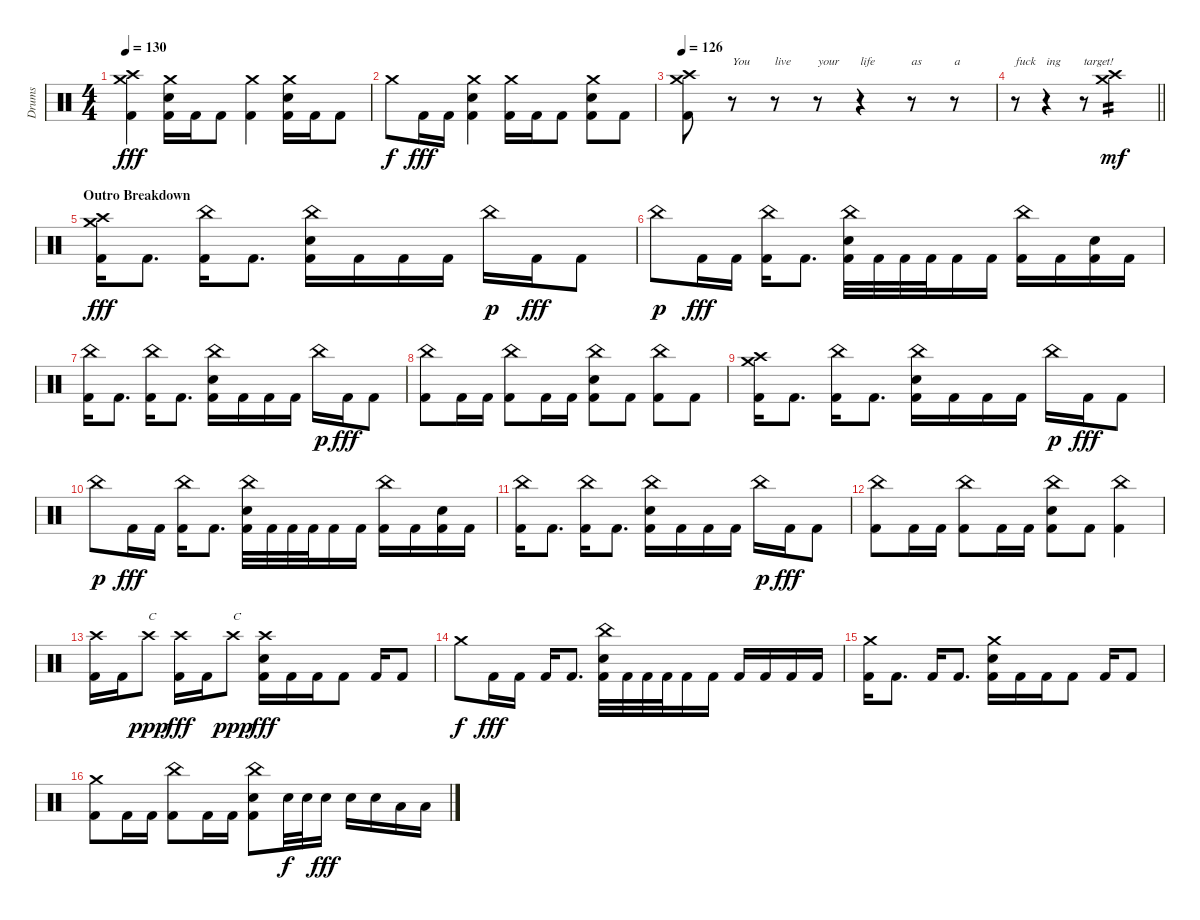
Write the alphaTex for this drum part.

\track ("Drums" "Drums") {instrument percussion}
\staff {score}
\articulation defaults
\ts (4 4)
\tempo 130
\clef neutral
\ks c
("Crash high (hit)" "Crash medium (hit)" "Kick (hit) 2").4{dy fff} ("Crash medium (hit)" "Snare (hit) 2" "Kick (hit) 2").16 "Kick (hit) 2".16 "Kick (hit) 2".8 ("Crash medium (hit)" "Kick (hit) 2").4 ("Crash medium (hit)" "Snare (hit) 2" "Kick (hit) 2").16 "Kick (hit) 2".16 "Kick (hit) 2".8 |
"Crash medium (hit)".8{dy f} "Kick (hit) 2".16{dy fff} "Kick (hit) 2".16 ("Crash medium (hit)" "Snare (hit) 2" "Kick (hit) 2").4 ("Crash medium (hit)" "Kick (hit) 2").16 "Kick (hit) 2".16 "Kick (hit) 2".8 ("Crash medium (hit)" "Snare (hit) 2" "Kick (hit) 2").8 "Kick (hit) 2".8 |
\tempo 126
("Crash high (hit)" "Crash medium (hit)" "Kick (hit) 2").8{volume 0} r.8{txt "You"} r.8{txt "live"} r.8{txt "your"} r.4{txt "life"} r.8{txt "as"} r.8{txt "a"} |
\barLineRight lightlight
r.8{txt "fuck"} r.4{txt "ing"} r.8{txt "target!"} ("Crash high (hit)" "Crash medium (hit)").2{tp 2 dy mf volume 12} |
\section ("" "Outro Breakdown")
("Crash high (hit)" "Crash medium (hit)" "Kick (hit) 2").16{dy fff} "Kick (hit) 2".8{d} ("China (hit)" "Kick (hit) 2").16 "Kick (hit) 2".8{d} ("China (hit)" "Snare (hit) 2" "Kick (hit) 2").16 "Kick (hit) 2".16 "Kick (hit) 2".16 "Kick (hit) 2".16 "China (hit)".16{dy p} "Kick (hit) 2".16{dy fff} "Kick (hit) 2".8 |
"China (hit)".8{dy p} "Kick (hit) 2".16{dy fff} "Kick (hit) 2".16 ("China (hit)" "Kick (hit) 2").16 "Kick (hit) 2".8{d} ("China (hit)" "Snare (hit) 2" "Kick (hit) 2").32 "Kick (hit) 2".32 "Kick (hit) 2".32 "Kick (hit) 2".32 "Kick (hit) 2".16 "Kick (hit) 2".16 ("China (hit)" "Kick (hit) 2").16 "Kick (hit) 2".16 ("Snare (hit) 2" "Kick (hit) 2").16 "Kick (hit) 2".16 |
("China (hit)" "Kick (hit) 2").16 "Kick (hit) 2".8{d} ("China (hit)" "Kick (hit) 2").16 "Kick (hit) 2".8{d} ("China (hit)" "Snare (hit) 2" "Kick (hit) 2").16 "Kick (hit) 2".16 "Kick (hit) 2".16 "Kick (hit) 2".16 "China (hit)".16{dy p} "Kick (hit) 2".16{dy fff} "Kick (hit) 2".8 |
("China (hit)" "Kick (hit) 2").8 "Kick (hit) 2".16 "Kick (hit) 2".16 ("China (hit)" "Kick (hit) 2").8 "Kick (hit) 2".16 "Kick (hit) 2".16 ("China (hit)" "Snare (hit) 2" "Kick (hit) 2").8 "Kick (hit) 2".8 ("China (hit)" "Kick (hit) 2").8 "Kick (hit) 2".8 |
("Crash high (hit)" "Crash medium (hit)" "Kick (hit) 2").16 "Kick (hit) 2".8{d} ("China (hit)" "Kick (hit) 2").16 "Kick (hit) 2".8{d} ("China (hit)" "Snare (hit) 2" "Kick (hit) 2").16 "Kick (hit) 2".16 "Kick (hit) 2".16 "Kick (hit) 2".16 "China (hit)".16{dy p} "Kick (hit) 2".16{dy fff} "Kick (hit) 2".8 |
"China (hit)".8{dy p} "Kick (hit) 2".16{dy fff} "Kick (hit) 2".16 ("China (hit)" "Kick (hit) 2").16 "Kick (hit) 2".8{d} ("China (hit)" "Snare (hit) 2" "Kick (hit) 2").32 "Kick (hit) 2".32 "Kick (hit) 2".32 "Kick (hit) 2".32 "Kick (hit) 2".16 "Kick (hit) 2".16 ("China (hit)" "Kick (hit) 2").16 "Kick (hit) 2".16 ("Snare (hit) 2" "Kick (hit) 2").16 "Kick (hit) 2".16 |
("China (hit)" "Kick (hit) 2").16 "Kick (hit) 2".8{d} ("China (hit)" "Kick (hit) 2").16 "Kick (hit) 2".8{d} ("China (hit)" "Snare (hit) 2" "Kick (hit) 2").16 "Kick (hit) 2".16 "Kick (hit) 2".16 "Kick (hit) 2".16 "China (hit)".16{dy p} "Kick (hit) 2".16{dy fff} "Kick (hit) 2".8 |
("China (hit)" "Kick (hit) 2").8 "Kick (hit) 2".16 "Kick (hit) 2".16 ("China (hit)" "Kick (hit) 2").8 "Kick (hit) 2".16 "Kick (hit) 2".16 ("China (hit)" "Snare (hit) 2" "Kick (hit) 2").8 "Kick (hit) 2".8 ("China (hit)" "Kick (hit) 2").4 |
("Crash high (hit)" "Kick (hit) 2").16 "Kick (hit) 2".16 "Crash high (hit)".8{txt "C" dy ppp} ("Crash high (hit)" "Kick (hit) 2").16{dy fff} "Kick (hit) 2".16 "Crash high (hit)".8{txt "C" dy ppp} ("Crash high (hit)" "Snare (hit) 2" "Kick (hit) 2").16{dy fff} "Kick (hit) 2".16 "Kick (hit) 2".16 "Kick (hit) 2".8 "Kick (hit) 2".16 "Kick (hit) 2".8 |
"Crash medium (hit)".8{dy f} "Kick (hit) 2".16{dy fff} "Kick (hit) 2".16 "Kick (hit) 2".16 "Kick (hit) 2".8{d} ("China (hit)" "Snare (hit) 2" "Kick (hit) 2").32 "Kick (hit) 2".32 "Kick (hit) 2".32 "Kick (hit) 2".32 "Kick (hit) 2".16 "Kick (hit) 2".16 "Kick (hit) 2".16 "Kick (hit) 2".16 "Kick (hit) 2".16 "Kick (hit) 2".16 |
("Crash medium (hit)" "Kick (hit) 2").16 "Kick (hit) 2".8{d} "Kick (hit) 2".16 "Kick (hit) 2".8{d} ("Crash medium (hit)" "Snare (hit) 2" "Kick (hit) 2").16 "Kick (hit) 2".16 "Kick (hit) 2".16 "Kick (hit) 2".8 "Kick (hit) 2".16 "Kick (hit) 2".8 |
("Crash medium (hit)" "Kick (hit) 2").8 "Kick (hit) 2".16 "Kick (hit) 2".16 ("China (hit)" "Kick (hit) 2").8 "Kick (hit) 2".16 "Kick (hit) 2".16 ("China (hit)" "Snare (hit) 2" "Kick (hit) 2").8 "Snare (hit) 2".32{dy f} "Snare (hit) 2".32 "Snare (hit) 2".16{dy fff} "Snare (hit) 2".16 "Snare (hit) 2".16 "Low Tom (hit)".16 "Low Tom (hit)".16
